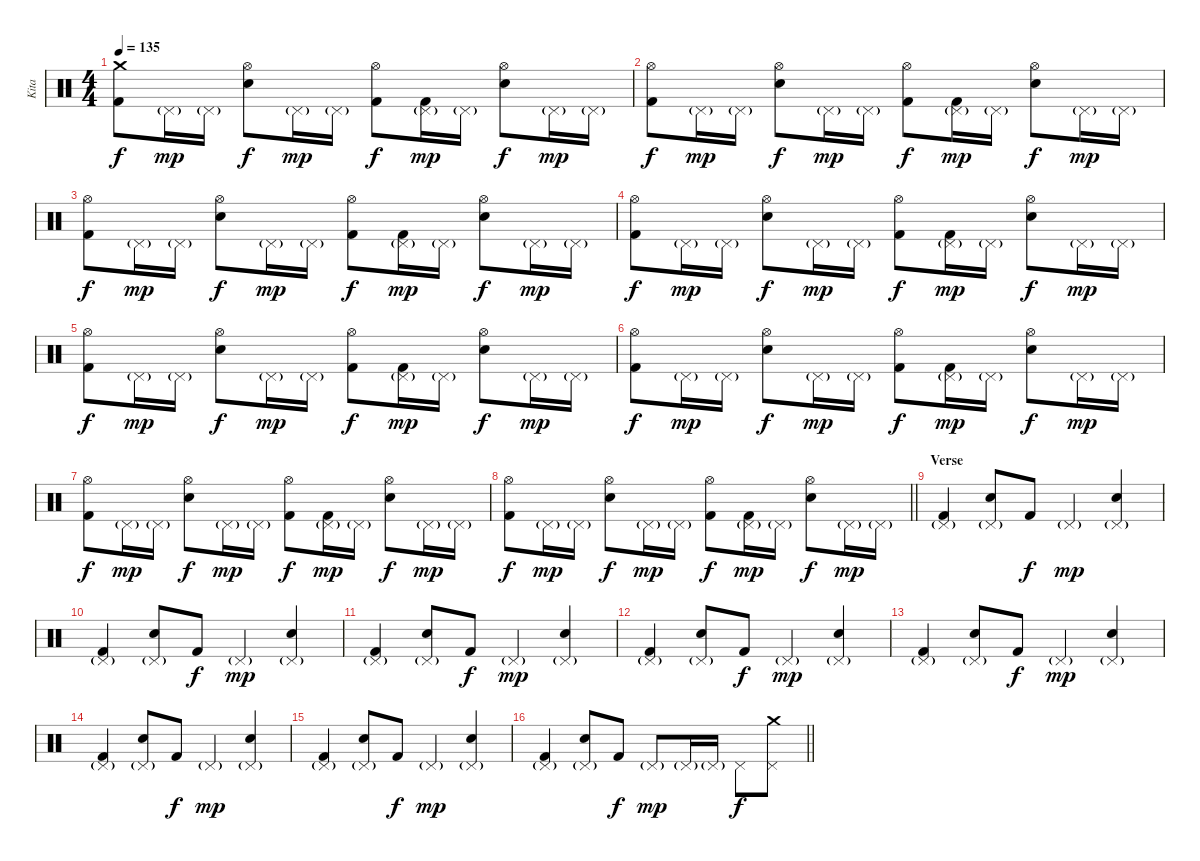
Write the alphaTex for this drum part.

\track ("Kita" "Kita") {instrument percussion}
\staff {score}
\articulation defaults
\ts (4 4)
\tempo 135
\clef neutral
\ks c
("Crash medium (hit)" "Kick (hit) 2").8{dy f} "Pedal Hi-Hat (hit)"{g}.16{dy mp} "Pedal Hi-Hat (hit)"{g}.16 ("Hi-Hat (open)" "Snare (hit) 2").8{dy f} "Pedal Hi-Hat (hit)"{g}.16{dy mp} "Pedal Hi-Hat (hit)"{g}.16 ("Hi-Hat (open)" "Kick (hit) 2").8{dy f} ("Pedal Hi-Hat (hit)"{g} "Kick (hit) 2").16{dy mp} "Pedal Hi-Hat (hit)"{g}.16 ("Hi-Hat (open)" "Snare (hit) 2").8{dy f} "Pedal Hi-Hat (hit)"{g}.16{dy mp} "Pedal Hi-Hat (hit)"{g}.16 |
("Hi-Hat (open)" "Kick (hit) 2").8{dy f} "Pedal Hi-Hat (hit)"{g}.16{dy mp} "Pedal Hi-Hat (hit)"{g}.16 ("Hi-Hat (open)" "Snare (hit) 2").8{dy f} "Pedal Hi-Hat (hit)"{g}.16{dy mp} "Pedal Hi-Hat (hit)"{g}.16 ("Hi-Hat (open)" "Kick (hit) 2").8{dy f} ("Pedal Hi-Hat (hit)"{g} "Kick (hit) 2").16{dy mp} "Pedal Hi-Hat (hit)"{g}.16 ("Hi-Hat (open)" "Snare (hit) 2").8{dy f} "Pedal Hi-Hat (hit)"{g}.16{dy mp} "Pedal Hi-Hat (hit)"{g}.16 |
("Hi-Hat (open)" "Kick (hit) 2").8{dy f} "Pedal Hi-Hat (hit)"{g}.16{dy mp} "Pedal Hi-Hat (hit)"{g}.16 ("Hi-Hat (open)" "Snare (hit) 2").8{dy f} "Pedal Hi-Hat (hit)"{g}.16{dy mp} "Pedal Hi-Hat (hit)"{g}.16 ("Hi-Hat (open)" "Kick (hit) 2").8{dy f} ("Pedal Hi-Hat (hit)"{g} "Kick (hit) 2").16{dy mp} "Pedal Hi-Hat (hit)"{g}.16 ("Hi-Hat (open)" "Snare (hit) 2").8{dy f} "Pedal Hi-Hat (hit)"{g}.16{dy mp} "Pedal Hi-Hat (hit)"{g}.16 |
("Hi-Hat (open)" "Kick (hit) 2").8{dy f} "Pedal Hi-Hat (hit)"{g}.16{dy mp} "Pedal Hi-Hat (hit)"{g}.16 ("Hi-Hat (open)" "Snare (hit) 2").8{dy f} "Pedal Hi-Hat (hit)"{g}.16{dy mp} "Pedal Hi-Hat (hit)"{g}.16 ("Hi-Hat (open)" "Kick (hit) 2").8{dy f} ("Pedal Hi-Hat (hit)"{g} "Kick (hit) 2").16{dy mp} "Pedal Hi-Hat (hit)"{g}.16 ("Hi-Hat (open)" "Snare (hit) 2").8{dy f} "Pedal Hi-Hat (hit)"{g}.16{dy mp} "Pedal Hi-Hat (hit)"{g}.16 |
("Hi-Hat (open)" "Kick (hit) 2").8{dy f} "Pedal Hi-Hat (hit)"{g}.16{dy mp} "Pedal Hi-Hat (hit)"{g}.16 ("Hi-Hat (open)" "Snare (hit) 2").8{dy f} "Pedal Hi-Hat (hit)"{g}.16{dy mp} "Pedal Hi-Hat (hit)"{g}.16 ("Hi-Hat (open)" "Kick (hit) 2").8{dy f} ("Pedal Hi-Hat (hit)"{g} "Kick (hit) 2").16{dy mp} "Pedal Hi-Hat (hit)"{g}.16 ("Hi-Hat (open)" "Snare (hit) 2").8{dy f} "Pedal Hi-Hat (hit)"{g}.16{dy mp} "Pedal Hi-Hat (hit)"{g}.16 |
("Hi-Hat (open)" "Kick (hit) 2").8{dy f} "Pedal Hi-Hat (hit)"{g}.16{dy mp} "Pedal Hi-Hat (hit)"{g}.16 ("Hi-Hat (open)" "Snare (hit) 2").8{dy f} "Pedal Hi-Hat (hit)"{g}.16{dy mp} "Pedal Hi-Hat (hit)"{g}.16 ("Hi-Hat (open)" "Kick (hit) 2").8{dy f} ("Pedal Hi-Hat (hit)"{g} "Kick (hit) 2").16{dy mp} "Pedal Hi-Hat (hit)"{g}.16 ("Hi-Hat (open)" "Snare (hit) 2").8{dy f} "Pedal Hi-Hat (hit)"{g}.16{dy mp} "Pedal Hi-Hat (hit)"{g}.16 |
("Hi-Hat (open)" "Kick (hit) 2").8{dy f} "Pedal Hi-Hat (hit)"{g}.16{dy mp} "Pedal Hi-Hat (hit)"{g}.16 ("Hi-Hat (open)" "Snare (hit) 2").8{dy f} "Pedal Hi-Hat (hit)"{g}.16{dy mp} "Pedal Hi-Hat (hit)"{g}.16 ("Hi-Hat (open)" "Kick (hit) 2").8{dy f} ("Pedal Hi-Hat (hit)"{g} "Kick (hit) 2").16{dy mp} "Pedal Hi-Hat (hit)"{g}.16 ("Hi-Hat (open)" "Snare (hit) 2").8{dy f} "Pedal Hi-Hat (hit)"{g}.16{dy mp} "Pedal Hi-Hat (hit)"{g}.16 |
\barLineRight lightlight
("Hi-Hat (open)" "Kick (hit) 2").8{dy f} "Pedal Hi-Hat (hit)"{g}.16{dy mp} "Pedal Hi-Hat (hit)"{g}.16 ("Hi-Hat (open)" "Snare (hit) 2").8{dy f} "Pedal Hi-Hat (hit)"{g}.16{dy mp} "Pedal Hi-Hat (hit)"{g}.16 ("Hi-Hat (open)" "Kick (hit) 2").8{dy f} ("Pedal Hi-Hat (hit)"{g} "Kick (hit) 2").16{dy mp} "Pedal Hi-Hat (hit)"{g}.16 ("Hi-Hat (open)" "Snare (hit) 2").8{dy f} "Pedal Hi-Hat (hit)"{g}.16{dy mp} "Pedal Hi-Hat (hit)"{g}.16 |
\section ("" "Verse")
("Pedal Hi-Hat (hit)"{g} "Kick (hit) 2").4 ("Pedal Hi-Hat (hit)"{g} "Snare (hit) 2").8 "Kick (hit) 2".8{dy f} "Pedal Hi-Hat (hit)"{g}.4{dy mp} ("Pedal Hi-Hat (hit)"{g} "Snare (hit) 2").4 |
("Pedal Hi-Hat (hit)"{g} "Kick (hit) 2").4 ("Pedal Hi-Hat (hit)"{g} "Snare (hit) 2").8 "Kick (hit) 2".8{dy f} "Pedal Hi-Hat (hit)"{g}.4{dy mp} ("Pedal Hi-Hat (hit)"{g} "Snare (hit) 2").4 |
("Pedal Hi-Hat (hit)"{g} "Kick (hit) 2").4 ("Pedal Hi-Hat (hit)"{g} "Snare (hit) 2").8 "Kick (hit) 2".8{dy f} "Pedal Hi-Hat (hit)"{g}.4{dy mp} ("Pedal Hi-Hat (hit)"{g} "Snare (hit) 2").4 |
("Pedal Hi-Hat (hit)"{g} "Kick (hit) 2").4 ("Pedal Hi-Hat (hit)"{g} "Snare (hit) 2").8 "Kick (hit) 2".8{dy f} "Pedal Hi-Hat (hit)"{g}.4{dy mp} ("Pedal Hi-Hat (hit)"{g} "Snare (hit) 2").4 |
("Pedal Hi-Hat (hit)"{g} "Kick (hit) 2").4 ("Pedal Hi-Hat (hit)"{g} "Snare (hit) 2").8 "Kick (hit) 2".8{dy f} "Pedal Hi-Hat (hit)"{g}.4{dy mp} ("Pedal Hi-Hat (hit)"{g} "Snare (hit) 2").4 |
("Pedal Hi-Hat (hit)"{g} "Kick (hit) 2").4 ("Pedal Hi-Hat (hit)"{g} "Snare (hit) 2").8 "Kick (hit) 2".8{dy f} "Pedal Hi-Hat (hit)"{g}.4{dy mp} ("Pedal Hi-Hat (hit)"{g} "Snare (hit) 2").4 |
("Pedal Hi-Hat (hit)"{g} "Kick (hit) 2").4 ("Pedal Hi-Hat (hit)"{g} "Snare (hit) 2").8 "Kick (hit) 2".8{dy f} "Pedal Hi-Hat (hit)"{g}.4{dy mp} ("Pedal Hi-Hat (hit)"{g} "Snare (hit) 2").4 |
\barLineRight lightlight
("Pedal Hi-Hat (hit)"{g} "Kick (hit) 2").4 ("Pedal Hi-Hat (hit)"{g} "Snare (hit) 2").8 "Kick (hit) 2".8{dy f} "Pedal Hi-Hat (hit)"{g}.8{dy mp} "Pedal Hi-Hat (hit)"{g}.16 "Pedal Hi-Hat (hit)"{g}.16 "Pedal Hi-Hat (hit)".8{dy f} ("Pedal Hi-Hat (hit)" "Crash medium (hit)").8
